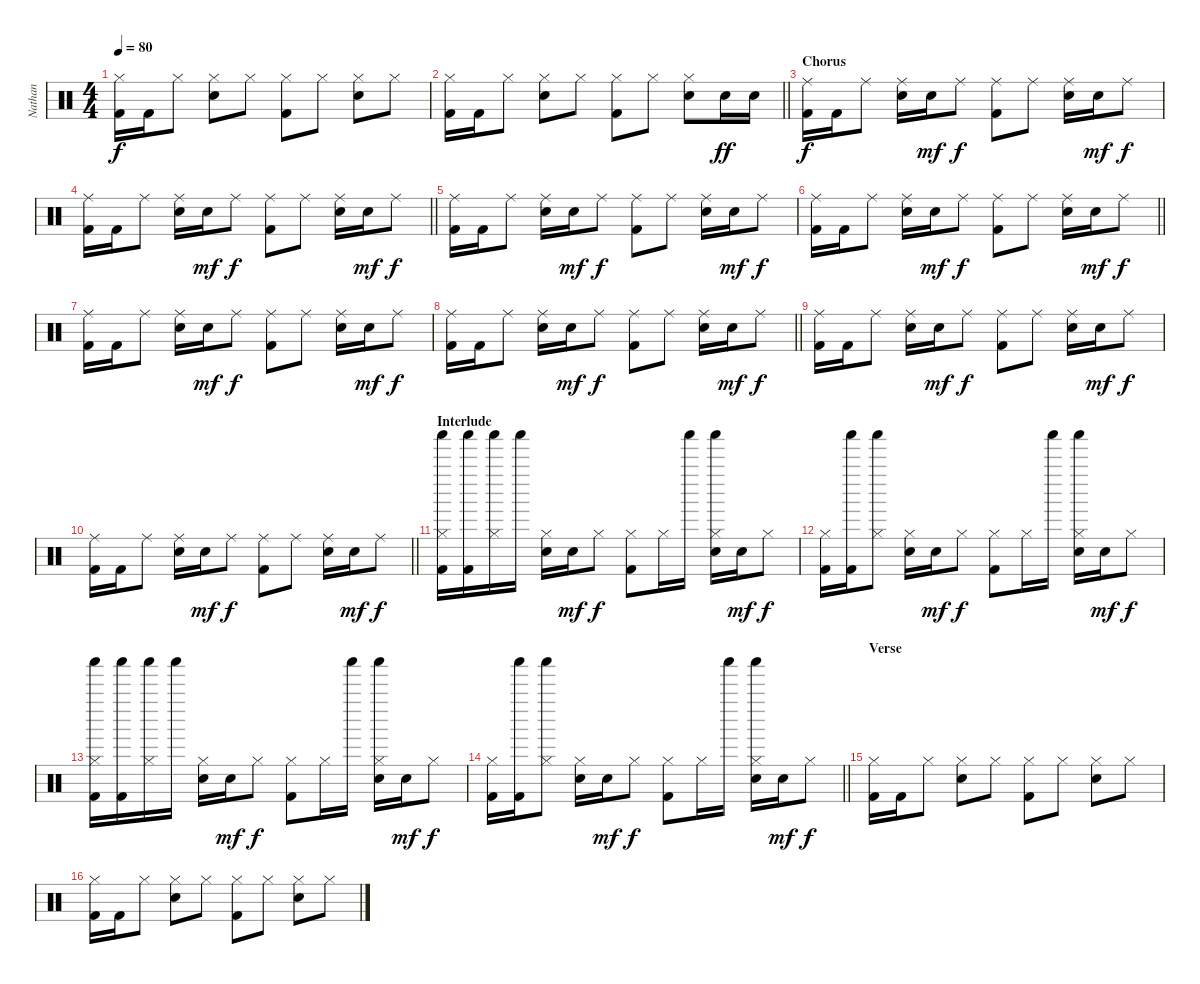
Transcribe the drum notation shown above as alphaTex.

\track ("Nathan" "Nathan") {instrument percussion}
\staff {score}
\articulation defaults
\ts (4 4)
\tempo 80
\clef neutral
\ks c
("Hi-Hat (closed)" "Kick (hit) 2").16{dy f} "Kick (hit) 2".16 "Hi-Hat (closed)".8 ("Hi-Hat (closed)" "Electric Snare (hit)").8 "Hi-Hat (closed)".8 ("Hi-Hat (closed)" "Kick (hit) 2").8 "Hi-Hat (closed)".8 ("Hi-Hat (closed)" "Electric Snare (hit)").8 "Hi-Hat (closed)".8 |
\barLineRight lightlight
("Hi-Hat (closed)" "Kick (hit) 2").16 "Kick (hit) 2".16 "Hi-Hat (closed)".8 ("Hi-Hat (closed)" "Electric Snare (hit)").8 "Hi-Hat (closed)".8 ("Hi-Hat (closed)" "Kick (hit) 2").8 "Hi-Hat (closed)".8 ("Hi-Hat (closed)" "Electric Snare (hit)").8 "Electric Snare (hit)".16{dy ff} "Electric Snare (hit)".16 |
\section ("" "Chorus")
("Ride (middle)" "Kick (hit) 2").16{dy f} "Kick (hit) 2".16 "Ride (middle)".8 ("Ride (middle)" "Electric Snare (hit)").16 "Electric Snare (hit)".16{dy mf} "Ride (middle)".8{dy f} ("Ride (middle)" "Kick (hit) 2").8 "Ride (middle)".8 ("Ride (middle)" "Electric Snare (hit)").16 "Electric Snare (hit)".16{dy mf} "Ride (middle)".8{dy f} |
\barLineRight lightlight
("Ride (middle)" "Kick (hit) 2").16 "Kick (hit) 2".16 "Ride (middle)".8 ("Ride (middle)" "Electric Snare (hit)").16 "Electric Snare (hit)".16{dy mf} "Ride (middle)".8{dy f} ("Ride (middle)" "Kick (hit) 2").8 "Ride (middle)".8 ("Ride (middle)" "Electric Snare (hit)").16 "Electric Snare (hit)".16{dy mf} "Ride (middle)".8{dy f} |
("Ride (middle)" "Kick (hit) 2").16 "Kick (hit) 2".16 "Ride (middle)".8 ("Ride (middle)" "Electric Snare (hit)").16 "Electric Snare (hit)".16{dy mf} "Ride (middle)".8{dy f} ("Ride (middle)" "Kick (hit) 2").8 "Ride (middle)".8 ("Ride (middle)" "Electric Snare (hit)").16 "Electric Snare (hit)".16{dy mf} "Ride (middle)".8{dy f} |
\barLineRight lightlight
("Ride (middle)" "Kick (hit) 2").16 "Kick (hit) 2".16 "Ride (middle)".8 ("Ride (middle)" "Electric Snare (hit)").16 "Electric Snare (hit)".16{dy mf} "Ride (middle)".8{dy f} ("Ride (middle)" "Kick (hit) 2").8 "Ride (middle)".8 ("Ride (middle)" "Electric Snare (hit)").16 "Electric Snare (hit)".16{dy mf} "Ride (middle)".8{dy f} |
("Ride (middle)" "Kick (hit) 2").16 "Kick (hit) 2".16 "Ride (middle)".8 ("Ride (middle)" "Electric Snare (hit)").16 "Electric Snare (hit)".16{dy mf} "Ride (middle)".8{dy f} ("Ride (middle)" "Kick (hit) 2").8 "Ride (middle)".8 ("Ride (middle)" "Electric Snare (hit)").16 "Electric Snare (hit)".16{dy mf} "Ride (middle)".8{dy f} |
\barLineRight lightlight
("Ride (middle)" "Kick (hit) 2").16 "Kick (hit) 2".16 "Ride (middle)".8 ("Ride (middle)" "Electric Snare (hit)").16 "Electric Snare (hit)".16{dy mf} "Ride (middle)".8{dy f} ("Ride (middle)" "Kick (hit) 2").8 "Ride (middle)".8 ("Ride (middle)" "Electric Snare (hit)").16 "Electric Snare (hit)".16{dy mf} "Ride (middle)".8{dy f} |
("Ride (middle)" "Kick (hit) 2").16 "Kick (hit) 2".16 "Ride (middle)".8 ("Ride (middle)" "Electric Snare (hit)").16 "Electric Snare (hit)".16{dy mf} "Ride (middle)".8{dy f} ("Ride (middle)" "Kick (hit) 2").8 "Ride (middle)".8 ("Ride (middle)" "Electric Snare (hit)").16 "Electric Snare (hit)".16{dy mf} "Ride (middle)".8{dy f} |
\barLineRight lightlight
("Ride (middle)" "Kick (hit) 2").16 "Kick (hit) 2".16 "Ride (middle)".8 ("Ride (middle)" "Electric Snare (hit)").16 "Electric Snare (hit)".16{dy mf} "Ride (middle)".8{dy f} ("Ride (middle)" "Kick (hit) 2").8 "Ride (middle)".8 ("Ride (middle)" "Electric Snare (hit)").16 "Electric Snare (hit)".16{dy mf} "Ride (middle)".8{dy f} |
\section ("" "Interlude")
("Hi-Hat (closed)" "Shaker (hit)" "Kick (hit) 2").16 ("Shaker (hit)" "Kick (hit) 2").16 ("Hi-Hat (closed)" "Shaker (hit)").16 "Shaker (hit)".16 ("Hi-Hat (closed)" "Electric Snare (hit)").16 "Electric Snare (hit)".16{dy mf} "Hi-Hat (closed)".8{dy f} ("Hi-Hat (closed)" "Kick (hit) 2").8 "Hi-Hat (closed)".16 "Shaker (hit)".16 ("Hi-Hat (closed)" "Shaker (hit)" "Electric Snare (hit)").16 "Electric Snare (hit)".16{dy mf} "Hi-Hat (closed)".8{dy f} |
("Hi-Hat (closed)" "Kick (hit) 2").16 ("Shaker (hit)" "Kick (hit) 2").16 ("Hi-Hat (closed)" "Shaker (hit)").8 ("Hi-Hat (closed)" "Electric Snare (hit)").16 "Electric Snare (hit)".16{dy mf} "Hi-Hat (closed)".8{dy f} ("Hi-Hat (closed)" "Kick (hit) 2").8 "Hi-Hat (closed)".16 "Shaker (hit)".16 ("Hi-Hat (closed)" "Shaker (hit)" "Electric Snare (hit)").16 "Electric Snare (hit)".16{dy mf} "Hi-Hat (closed)".8{dy f} |
("Hi-Hat (closed)" "Shaker (hit)" "Kick (hit) 2").16 ("Shaker (hit)" "Kick (hit) 2").16 ("Hi-Hat (closed)" "Shaker (hit)").16 "Shaker (hit)".16 ("Hi-Hat (closed)" "Electric Snare (hit)").16 "Electric Snare (hit)".16{dy mf} "Hi-Hat (closed)".8{dy f} ("Hi-Hat (closed)" "Kick (hit) 2").8 "Hi-Hat (closed)".16 "Shaker (hit)".16 ("Hi-Hat (closed)" "Shaker (hit)" "Electric Snare (hit)").16 "Electric Snare (hit)".16{dy mf} "Hi-Hat (closed)".8{dy f} |
\barLineRight lightlight
("Hi-Hat (closed)" "Kick (hit) 2").16 ("Shaker (hit)" "Kick (hit) 2").16 ("Hi-Hat (closed)" "Shaker (hit)").8 ("Hi-Hat (closed)" "Electric Snare (hit)").16 "Electric Snare (hit)".16{dy mf} "Hi-Hat (closed)".8{dy f} ("Hi-Hat (closed)" "Kick (hit) 2").8 "Hi-Hat (closed)".16 "Shaker (hit)".16 ("Hi-Hat (closed)" "Shaker (hit)" "Electric Snare (hit)").16 "Electric Snare (hit)".16{dy mf} "Hi-Hat (closed)".8{dy f} |
\section ("" "Verse")
("Hi-Hat (closed)" "Kick (hit) 2").16 "Kick (hit) 2".16 "Hi-Hat (closed)".8 ("Hi-Hat (closed)" "Electric Snare (hit)").8 "Hi-Hat (closed)".8 ("Hi-Hat (closed)" "Kick (hit) 2").8 "Hi-Hat (closed)".8 ("Hi-Hat (closed)" "Electric Snare (hit)").8 "Hi-Hat (closed)".8 |
("Hi-Hat (closed)" "Kick (hit) 2").16 "Kick (hit) 2".16 "Hi-Hat (closed)".8 ("Hi-Hat (closed)" "Electric Snare (hit)").8 "Hi-Hat (closed)".8 ("Hi-Hat (closed)" "Kick (hit) 2").8 "Hi-Hat (closed)".8 ("Hi-Hat (closed)" "Electric Snare (hit)").8 "Hi-Hat (closed)".8
